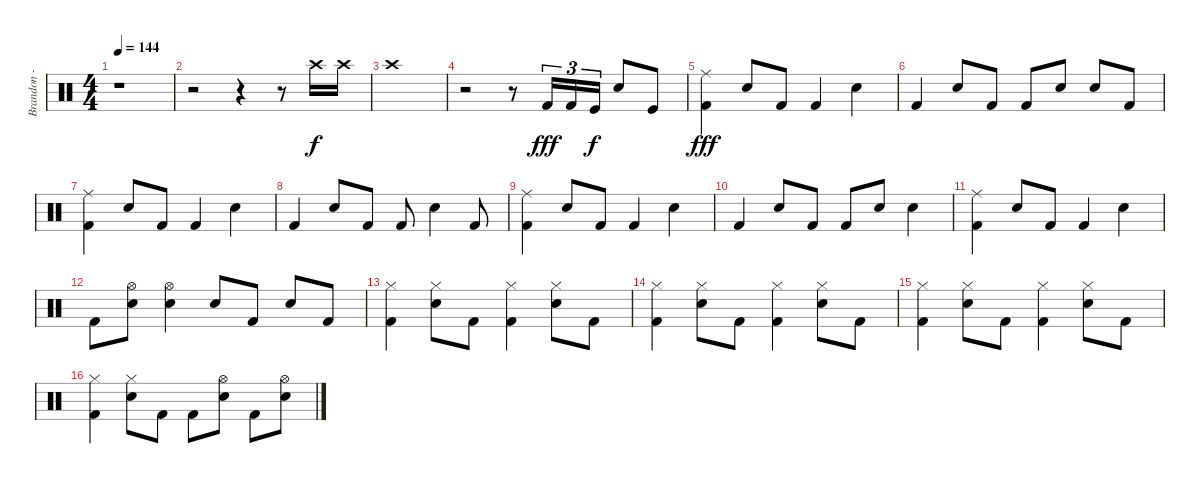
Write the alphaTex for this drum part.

\track ("Brandon - Drums" "Brandon - ") {instrument percussion}
\staff {score}
\articulation defaults
\ts (4 4)
\tempo 144
\clef neutral
\ks c
r.1{dy f} |
r.2 r.4 r.8 "Crash high (hit)".16 "Crash high (hit)".16 |
"Crash high (hit)".1 |
r.2 r.8 "Kick (hit) 2".16{tu (3 2) dy fff} "Kick (hit) 2".16{tu (3 2)} "Kick (hit)".16{tu (3 2) dy f} "Snare (hit) 2".8 "Kick (hit)".8 |
("Ride (middle)" "Kick (hit) 2").4{dy fff} "Snare (hit) 2".8 "Kick (hit) 2".8 "Kick (hit) 2".4 "Snare (hit) 2".4 |
"Kick (hit) 2".4 "Snare (hit) 2".8 "Kick (hit) 2".8 "Kick (hit) 2".8 "Snare (hit) 2".8 "Snare (hit) 2".8 "Kick (hit) 2".8 |
("Ride (middle)" "Kick (hit) 2").4 "Snare (hit) 2".8 "Kick (hit) 2".8 "Kick (hit) 2".4 "Snare (hit) 2".4 |
"Kick (hit) 2".4 "Snare (hit) 2".8 "Kick (hit) 2".8 "Kick (hit) 2".8 "Snare (hit) 2".4 "Kick (hit) 2".8 |
("Ride (middle)" "Kick (hit) 2").4 "Snare (hit) 2".8 "Kick (hit) 2".8 "Kick (hit) 2".4 "Snare (hit) 2".4 |
"Kick (hit) 2".4 "Snare (hit) 2".8 "Kick (hit) 2".8 "Kick (hit) 2".8 "Snare (hit) 2".8 "Snare (hit) 2".4 |
("Ride (middle)" "Kick (hit) 2").4 "Snare (hit) 2".8 "Kick (hit) 2".8 "Kick (hit) 2".4 "Snare (hit) 2".4 |
"Kick (hit) 2".8 ("Hi-Hat (open)" "Snare (hit) 2").8 ("Hi-Hat (open)" "Snare (hit) 2").4 "Snare (hit) 2".8 "Kick (hit) 2".8 "Snare (hit) 2".8 "Kick (hit) 2".8 |
("Hi-Hat (closed)" "Kick (hit) 2").4 ("Hi-Hat (closed)" "Snare (hit) 2").8 "Kick (hit) 2".8 ("Hi-Hat (closed)" "Kick (hit) 2").4 ("Hi-Hat (closed)" "Snare (hit) 2").8 "Kick (hit) 2".8 |
("Hi-Hat (closed)" "Kick (hit) 2").4 ("Hi-Hat (closed)" "Snare (hit) 2").8 "Kick (hit) 2".8 ("Hi-Hat (closed)" "Kick (hit) 2").4 ("Hi-Hat (closed)" "Snare (hit) 2").8 "Kick (hit) 2".8 |
("Hi-Hat (closed)" "Kick (hit) 2").4 ("Hi-Hat (closed)" "Snare (hit) 2").8 "Kick (hit) 2".8 ("Hi-Hat (closed)" "Kick (hit) 2").4 ("Hi-Hat (closed)" "Snare (hit) 2").8 "Kick (hit) 2".8 |
("Hi-Hat (closed)" "Kick (hit) 2").4 ("Hi-Hat (closed)" "Snare (hit) 2").8 "Kick (hit) 2".8 "Kick (hit) 2".8 ("Hi-Hat (open)" "Snare (hit) 2").8 "Kick (hit) 2".8 ("Hi-Hat (open)" "Snare (hit) 2").8
